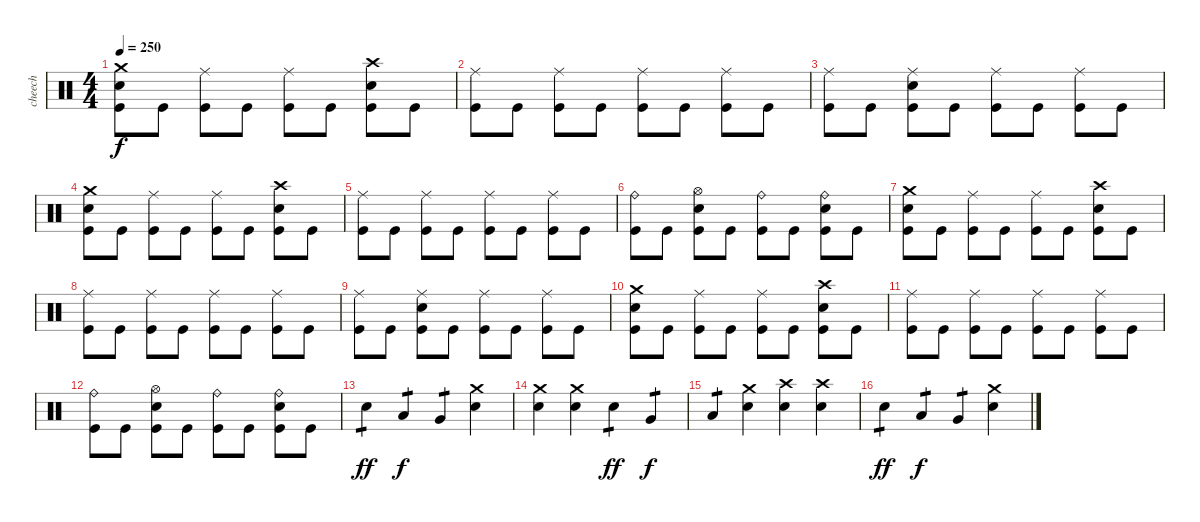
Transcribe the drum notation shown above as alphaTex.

\track ("cheech" "cheech") {instrument percussion}
\staff {score}
\articulation defaults
\ts (4 4)
\tempo 250
\clef neutral
\ks c
("Crash medium (hit)" "Electric Snare (hit)" "Kick (hit)").8{dy f} "Kick (hit)".8 ("Ride (middle)" "Kick (hit)").8 "Kick (hit)".8 ("Ride (middle)" "Kick (hit)").8 "Kick (hit)".8 ("Crash high (hit)" "Electric Snare (hit)" "Kick (hit)").8 "Kick (hit)".8 |
("Ride (middle)" "Kick (hit)").8 "Kick (hit)".8 ("Ride (middle)" "Kick (hit)").8 "Kick (hit)".8 ("Ride (middle)" "Kick (hit)").8 "Kick (hit)".8 ("Ride (middle)" "Kick (hit)").8 "Kick (hit)".8 |
("Ride (middle)" "Kick (hit)").8 "Kick (hit)".8 ("Ride (middle)" "Electric Snare (hit)" "Kick (hit)").8 "Kick (hit)".8 ("Ride (middle)" "Kick (hit)").8 "Kick (hit)".8 ("Ride (middle)" "Kick (hit)").8 "Kick (hit)".8 |
("Crash medium (hit)" "Electric Snare (hit)" "Kick (hit)").8 "Kick (hit)".8 ("Ride (middle)" "Kick (hit)").8 "Kick (hit)".8 ("Ride (middle)" "Kick (hit)").8 "Kick (hit)".8 ("Crash high (hit)" "Electric Snare (hit)" "Kick (hit)").8 "Kick (hit)".8 |
("Ride (middle)" "Kick (hit)").8 "Kick (hit)".8 ("Ride (middle)" "Kick (hit)").8 "Kick (hit)".8 ("Ride (middle)" "Kick (hit)").8 "Kick (hit)".8 ("Ride (middle)" "Kick (hit)").8 "Kick (hit)".8 |
("Ride (bell)" "Kick (hit)").8 "Kick (hit)".8 ("Hi-Hat (open)" "Electric Snare (hit)" "Kick (hit)").8 "Kick (hit)".8 ("Ride (bell)" "Kick (hit)").8 "Kick (hit)".8 ("Ride (bell)" "Electric Snare (hit)" "Kick (hit)").8 "Kick (hit)".8 |
("Crash medium (hit)" "Electric Snare (hit)" "Kick (hit)").8 "Kick (hit)".8 ("Ride (middle)" "Kick (hit)").8 "Kick (hit)".8 ("Ride (middle)" "Kick (hit)").8 "Kick (hit)".8 ("Crash high (hit)" "Electric Snare (hit)" "Kick (hit)").8 "Kick (hit)".8 |
("Ride (middle)" "Kick (hit)").8 "Kick (hit)".8 ("Ride (middle)" "Kick (hit)").8 "Kick (hit)".8 ("Ride (middle)" "Kick (hit)").8 "Kick (hit)".8 ("Ride (middle)" "Kick (hit)").8 "Kick (hit)".8 |
("Ride (middle)" "Kick (hit)").8 "Kick (hit)".8 ("Ride (middle)" "Electric Snare (hit)" "Kick (hit)").8 "Kick (hit)".8 ("Ride (middle)" "Kick (hit)").8 "Kick (hit)".8 ("Ride (middle)" "Kick (hit)").8 "Kick (hit)".8 |
("Crash medium (hit)" "Electric Snare (hit)" "Kick (hit)").8 "Kick (hit)".8 ("Ride (middle)" "Kick (hit)").8 "Kick (hit)".8 ("Ride (middle)" "Kick (hit)").8 "Kick (hit)".8 ("Crash high (hit)" "Electric Snare (hit)" "Kick (hit)").8 "Kick (hit)".8 |
("Ride (middle)" "Kick (hit)").8 "Kick (hit)".8 ("Ride (middle)" "Kick (hit)").8 "Kick (hit)".8 ("Ride (middle)" "Kick (hit)").8 "Kick (hit)".8 ("Ride (middle)" "Kick (hit)").8 "Kick (hit)".8 |
("Ride (bell)" "Kick (hit)").8 "Kick (hit)".8 ("Hi-Hat (open)" "Electric Snare (hit)" "Kick (hit)").8 "Kick (hit)".8 ("Ride (bell)" "Kick (hit)").8 "Kick (hit)".8 ("Ride (bell)" "Electric Snare (hit)" "Kick (hit)").8 "Kick (hit)".8 |
"Electric Snare (hit)".4{tp 1 dy ff} "Low Tom (hit)".4{tp 1 dy f} "Very Low Tom (hit)".4{tp 1} ("Crash medium (hit)" "Electric Snare (hit)").4 |
("Crash medium (hit)" "Electric Snare (hit)").4 ("Crash medium (hit)" "Electric Snare (hit)").4 "Electric Snare (hit)".4{tp 1 dy ff} "Very Low Tom (hit)".4{tp 1 dy f} |
"Low Floor Tom (hit)".4{tp 1} ("Crash medium (hit)" "Electric Snare (hit)").4 ("Crash high (hit)" "Electric Snare (hit)").4 ("Crash high (hit)" "Electric Snare (hit)").4 |
"Electric Snare (hit)".4{tp 1 dy ff} "Low Tom (hit)".4{tp 1 dy f} "Very Low Tom (hit)".4{tp 1} ("Crash medium (hit)" "Electric Snare (hit)").4
